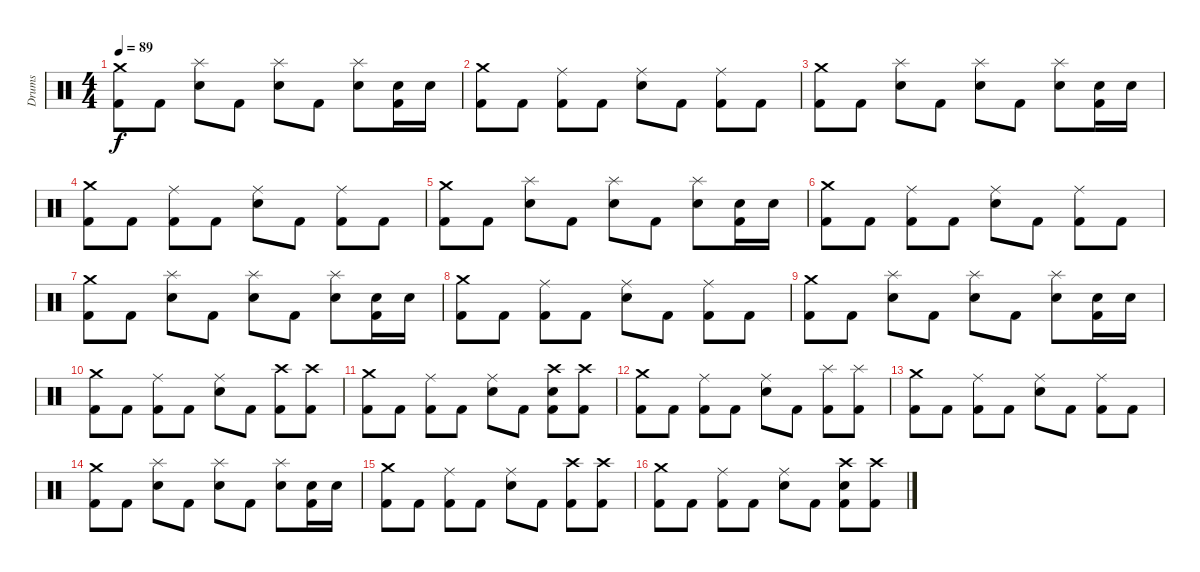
\track ("Drums" "Drums") {instrument percussion}
\staff {score}
\articulation defaults
\ts (4 4)
\tempo 89
\clef neutral
\ks c
("Crash medium (hit)" "Kick (hit) 2").8{dy f} "Kick (hit) 2".8 ("Splash (hit)" "Snare (hit) 2").8 "Kick (hit) 2".8 ("Splash (hit)" "Snare (hit) 2").8 "Kick (hit) 2".8 ("Splash (hit)" "Snare (hit) 2").8 ("Snare (hit) 2" "Kick (hit) 2").16 "Snare (hit) 2".16 |
("Crash medium (hit)" "Kick (hit) 2").8 "Kick (hit) 2".8 ("Ride (middle)" "Kick (hit) 2").8 "Kick (hit) 2".8 ("Ride (middle)" "Snare (hit) 2").8 "Kick (hit) 2".8 ("Ride (middle)" "Kick (hit) 2").8 "Kick (hit) 2".8 |
("Crash medium (hit)" "Kick (hit) 2").8 "Kick (hit) 2".8 ("Splash (hit)" "Snare (hit) 2").8 "Kick (hit) 2".8 ("Splash (hit)" "Snare (hit) 2").8 "Kick (hit) 2".8 ("Splash (hit)" "Snare (hit) 2").8 ("Snare (hit) 2" "Kick (hit) 2").16 "Snare (hit) 2".16 |
("Crash medium (hit)" "Kick (hit) 2").8 "Kick (hit) 2".8 ("Ride (middle)" "Kick (hit) 2").8 "Kick (hit) 2".8 ("Ride (middle)" "Snare (hit) 2").8 "Kick (hit) 2".8 ("Ride (middle)" "Kick (hit) 2").8 "Kick (hit) 2".8 |
("Crash medium (hit)" "Kick (hit) 2").8 "Kick (hit) 2".8 ("Splash (hit)" "Snare (hit) 2").8 "Kick (hit) 2".8 ("Splash (hit)" "Snare (hit) 2").8 "Kick (hit) 2".8 ("Splash (hit)" "Snare (hit) 2").8 ("Snare (hit) 2" "Kick (hit) 2").16 "Snare (hit) 2".16 |
("Crash medium (hit)" "Kick (hit) 2").8 "Kick (hit) 2".8 ("Ride (middle)" "Kick (hit) 2").8 "Kick (hit) 2".8 ("Ride (middle)" "Snare (hit) 2").8 "Kick (hit) 2".8 ("Ride (middle)" "Kick (hit) 2").8 "Kick (hit) 2".8 |
("Crash medium (hit)" "Kick (hit) 2").8 "Kick (hit) 2".8 ("Splash (hit)" "Snare (hit) 2").8 "Kick (hit) 2".8 ("Splash (hit)" "Snare (hit) 2").8 "Kick (hit) 2".8 ("Splash (hit)" "Snare (hit) 2").8 ("Snare (hit) 2" "Kick (hit) 2").16 "Snare (hit) 2".16 |
("Crash medium (hit)" "Kick (hit) 2").8 "Kick (hit) 2".8 ("Ride (middle)" "Kick (hit) 2").8 "Kick (hit) 2".8 ("Ride (middle)" "Snare (hit) 2").8 "Kick (hit) 2".8 ("Ride (middle)" "Kick (hit) 2").8 "Kick (hit) 2".8 |
("Crash medium (hit)" "Kick (hit) 2").8 "Kick (hit) 2".8 ("Splash (hit)" "Snare (hit) 2").8 "Kick (hit) 2".8 ("Splash (hit)" "Snare (hit) 2").8 "Kick (hit) 2".8 ("Splash (hit)" "Snare (hit) 2").8 ("Snare (hit) 2" "Kick (hit) 2").16 "Snare (hit) 2".16 |
("Crash medium (hit)" "Kick (hit) 2").8 "Kick (hit) 2".8 ("Ride (middle)" "Kick (hit) 2").8 "Kick (hit) 2".8 ("Ride (middle)" "Snare (hit) 2").8 "Kick (hit) 2".8 ("Crash high (hit)" "Kick (hit) 2").8 ("Crash high (hit)" "Kick (hit) 2").8 |
("Crash medium (hit)" "Kick (hit) 2").8 "Kick (hit) 2".8 ("Ride (middle)" "Kick (hit) 2").8 "Kick (hit) 2".8 ("Ride (middle)" "Snare (hit) 2").8 "Kick (hit) 2".8 ("Crash high (hit)" "Snare (hit) 2" "Kick (hit) 2").8 ("Crash high (hit)" "Kick (hit) 2").8 |
("Crash medium (hit)" "Kick (hit) 2").8 "Kick (hit) 2".8 ("Ride (middle)" "Kick (hit) 2").8 "Kick (hit) 2".8 ("Ride (middle)" "Snare (hit) 2").8 "Kick (hit) 2".8 ("Splash (hit)" "Kick (hit) 2").8 ("Splash (hit)" "Kick (hit) 2").8 |
("Crash medium (hit)" "Kick (hit) 2").8 "Kick (hit) 2".8 ("Ride (middle)" "Kick (hit) 2").8 "Kick (hit) 2".8 ("Ride (middle)" "Snare (hit) 2").8 "Kick (hit) 2".8 ("Ride (middle)" "Kick (hit) 2").8 "Kick (hit) 2".8 |
("Crash medium (hit)" "Kick (hit) 2").8 "Kick (hit) 2".8 ("Splash (hit)" "Snare (hit) 2").8 "Kick (hit) 2".8 ("Splash (hit)" "Snare (hit) 2").8 "Kick (hit) 2".8 ("Splash (hit)" "Snare (hit) 2").8 ("Snare (hit) 2" "Kick (hit) 2").16 "Snare (hit) 2".16 |
("Crash medium (hit)" "Kick (hit) 2").8 "Kick (hit) 2".8 ("Ride (middle)" "Kick (hit) 2").8 "Kick (hit) 2".8 ("Ride (middle)" "Snare (hit) 2").8 "Kick (hit) 2".8 ("Crash high (hit)" "Kick (hit) 2").8 ("Crash high (hit)" "Kick (hit) 2").8 |
("Crash medium (hit)" "Kick (hit) 2").8 "Kick (hit) 2".8 ("Ride (middle)" "Kick (hit) 2").8 "Kick (hit) 2".8 ("Ride (middle)" "Snare (hit) 2").8 "Kick (hit) 2".8 ("Crash high (hit)" "Snare (hit) 2" "Kick (hit) 2").8 ("Crash high (hit)" "Kick (hit) 2").8
